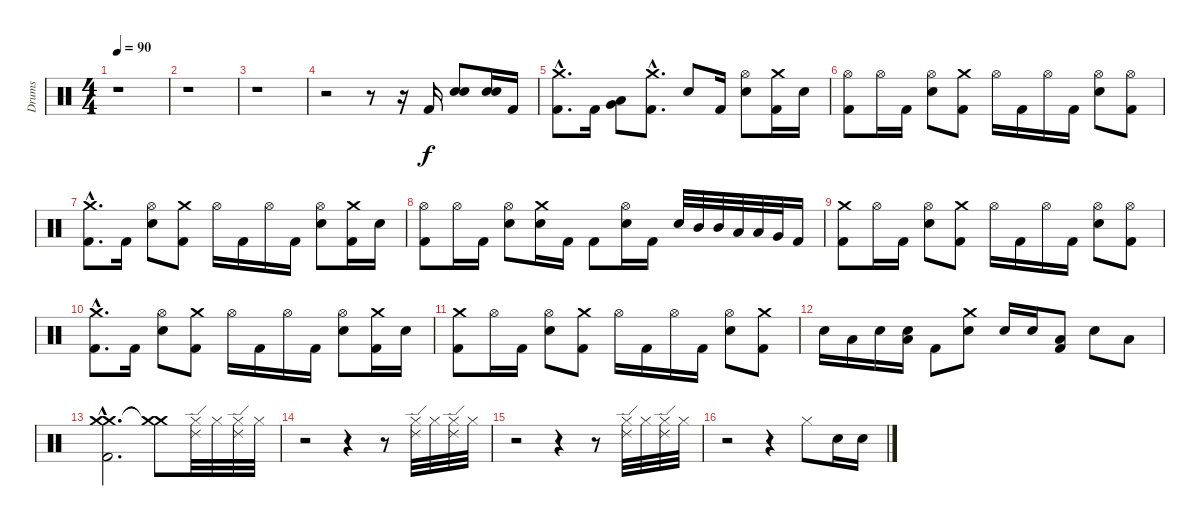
\track ("Drums" "Drums") {instrument percussion}
\staff {score}
\articulation defaults
\ts (4 4)
\tempo 90
\clef neutral
\ks c
r.1{dy f} |
r.1 |
r.1 |
r.2 r.8 r.16 "Kick (hit) 2".16 ("Snare (hit) 2" "Snare (hit) 2").8 ("Snare (hit) 2" "Snare (hit) 2").16 "Kick (hit) 2".16 |
("Crash medium (hit)"{hac} "Kick (hit) 2"{hac}).8{d} "Kick (hit) 2".16 ("Very Low Tom (hit)" "Low Tom (hit)").8 ("Crash medium (hit)"{hac} "Kick (hit) 2"{hac}).8{d} "Snare (hit) 2".8 "Kick (hit) 2".16 ("Hi-Hat (open)" "Snare (hit) 2").8 ("Crash medium (hit)" "Kick (hit) 2").16 "Snare (hit) 2".16 |
("Hi-Hat (open)" "Kick (hit) 2").8 "Hi-Hat (open)".16 "Kick (hit) 2".16 ("Hi-Hat (open)" "Snare (hit) 2").8 ("Crash medium (hit)" "Kick (hit) 2").8 "Hi-Hat (open)".16 "Kick (hit) 2".16 "Hi-Hat (open)".16 "Kick (hit) 2".16 ("Hi-Hat (open)" "Snare (hit) 2").8 ("Hi-Hat (open)" "Kick (hit) 2").8 |
("Crash medium (hit)"{hac} "Kick (hit) 2"{hac}).8{d} "Kick (hit) 2".16 ("Hi-Hat (open)" "Snare (hit) 2").8 ("Crash medium (hit)" "Kick (hit) 2").8 "Hi-Hat (open)".16 "Kick (hit) 2".16 "Hi-Hat (open)".16 "Kick (hit) 2".16 ("Hi-Hat (open)" "Snare (hit) 2").8 ("Crash medium (hit)" "Kick (hit) 2").16 "Snare (hit) 2".16 |
("Hi-Hat (open)" "Kick (hit) 2").8 "Hi-Hat (open)".16 "Kick (hit) 2".16 ("Hi-Hat (open)" "Snare (hit) 2").8 ("Crash medium (hit)" "Snare (hit) 2").16 "Kick (hit) 2".16 "Kick (hit) 2".8 ("Hi-Hat (open)" "Snare (hit) 2").16 "Kick (hit) 2".16 "Snare (hit) 2".32 "Mid Tom (hit)".32 "Mid Tom (hit)".32 "Low Tom (hit)".32 "Low Tom (hit)".32 "Very Low Tom (hit)".32 "Kick (hit) 2".16 |
("Crash medium (hit)" "Kick (hit) 2").8 "Hi-Hat (open)".16 "Kick (hit) 2".16 ("Hi-Hat (open)" "Snare (hit) 2").8 ("Crash medium (hit)" "Kick (hit) 2").8 "Hi-Hat (open)".16 "Kick (hit) 2".16 "Hi-Hat (open)".16 "Kick (hit) 2".16 ("Hi-Hat (open)" "Snare (hit) 2").8 ("Hi-Hat (open)" "Kick (hit) 2").8 |
("Crash medium (hit)"{hac} "Kick (hit) 2"{hac}).8{d} "Kick (hit) 2".16 ("Hi-Hat (open)" "Snare (hit) 2").8 ("Crash medium (hit)" "Kick (hit) 2").8 "Hi-Hat (open)".16 "Kick (hit) 2".16 "Hi-Hat (open)".16 "Kick (hit) 2".16 ("Hi-Hat (open)" "Snare (hit) 2").8 ("Crash medium (hit)" "Kick (hit) 2").16 "Snare (hit) 2".16 |
("Crash medium (hit)" "Kick (hit) 2").8 "Hi-Hat (open)".16 "Kick (hit) 2".16 ("Hi-Hat (open)" "Snare (hit) 2").8 ("Crash medium (hit)" "Kick (hit) 2").8 "Hi-Hat (open)".16 "Kick (hit) 2".16 "Hi-Hat (open)".16 "Kick (hit) 2".16 ("Hi-Hat (open)" "Snare (hit) 2").8 ("Crash medium (hit)" "Kick (hit) 2").8 |
"Snare (hit) 2".16 "Low Tom (hit)".16 "Snare (hit) 2".16 ("Snare (hit) 2" "Low Tom (hit)").16 "Kick (hit) 2".8 ("Crash medium (hit)" "Snare (hit) 2").8 "Snare (hit) 2".16 "Snare (hit) 2".16 ("Low Tom (hit)" "Kick (hit) 2").8 "Snare (hit) 2".8 "Low Tom (hit)".8 |
("Crash medium (hit)"{hac} "Crash medium (hit)"{hac} "Kick (hit) 2"{hac}).2{d} ("Crash medium (hit)"{t} "Crash medium (hit)"{t}).8 ("Ride (edge) 2" "Hi-Hat (closed)").32 "Hi-Hat (closed)".32 ("Ride (edge) 2" "Hi-Hat (closed)").32 "Hi-Hat (closed)".32 |
r.2 r.4 r.8 ("Ride (edge) 2" "Hi-Hat (closed)").32 "Hi-Hat (closed)".32 ("Ride (edge) 2" "Hi-Hat (closed)").32 "Hi-Hat (closed)".32 |
r.2 r.4 r.8 ("Ride (edge) 2" "Hi-Hat (closed)").32 "Hi-Hat (closed)".32 ("Ride (edge) 2" "Hi-Hat (closed)").32 "Hi-Hat (closed)".32 |
r.2 r.4 "Hi-Hat (closed)".8 "Snare (hit) 2".16 "Snare (hit) 2".16
